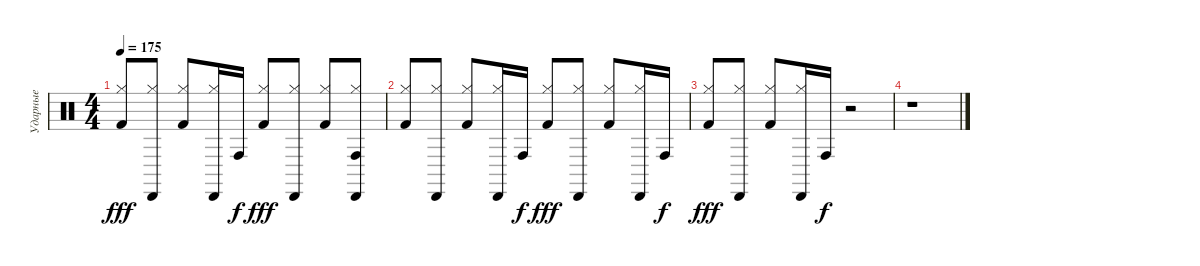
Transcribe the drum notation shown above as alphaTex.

\track ("Ударные" "Ударные") {instrument percussion}
\staff {score}
\articulation defaults
\ts (4 4)
\tempo 175
\clef neutral
\ks c
("Kick (hit) 2" "Hi-Hat (closed)").8{dy fff} ("Cabasa (hit)" "Hi-Hat (closed)").8 ("Hi-Hat (closed)" "Kick (hit) 2").8 ("Cabasa (hit)" "Hi-Hat (closed)").16 "Conga high (hit)".16{dy f} ("Hi-Hat (closed)" "Kick (hit) 2").8{dy fff} ("Hi-Hat (closed)" "Cabasa (hit)").8 ("Kick (hit) 2" "Hi-Hat (closed)").8 ("Hi-Hat (closed)" "Cabasa (hit)" "Conga high (hit)").8 |
("Kick (hit) 2" "Hi-Hat (closed)").8 ("Hi-Hat (closed)" "Cabasa (hit)").8 ("Kick (hit) 2" "Hi-Hat (closed)").8 ("Cabasa (hit)" "Hi-Hat (closed)").16 "Conga high (hit)".16{dy f} ("Kick (hit) 2" "Hi-Hat (closed)").8{dy fff} ("Cabasa (hit)" "Hi-Hat (closed)").8 ("Hi-Hat (closed)" "Kick (hit) 2").8 ("Hi-Hat (closed)" "Cabasa (hit)").16 "Conga high (hit)".16{dy f} |
("Kick (hit) 2" "Hi-Hat (closed)").8{dy fff} ("Cabasa (hit)" "Hi-Hat (closed)").8 ("Kick (hit) 2" "Hi-Hat (closed)").8 ("Cabasa (hit)" "Hi-Hat (closed)").16 "Conga high (hit)".16{dy f} r.2 |
r.1
